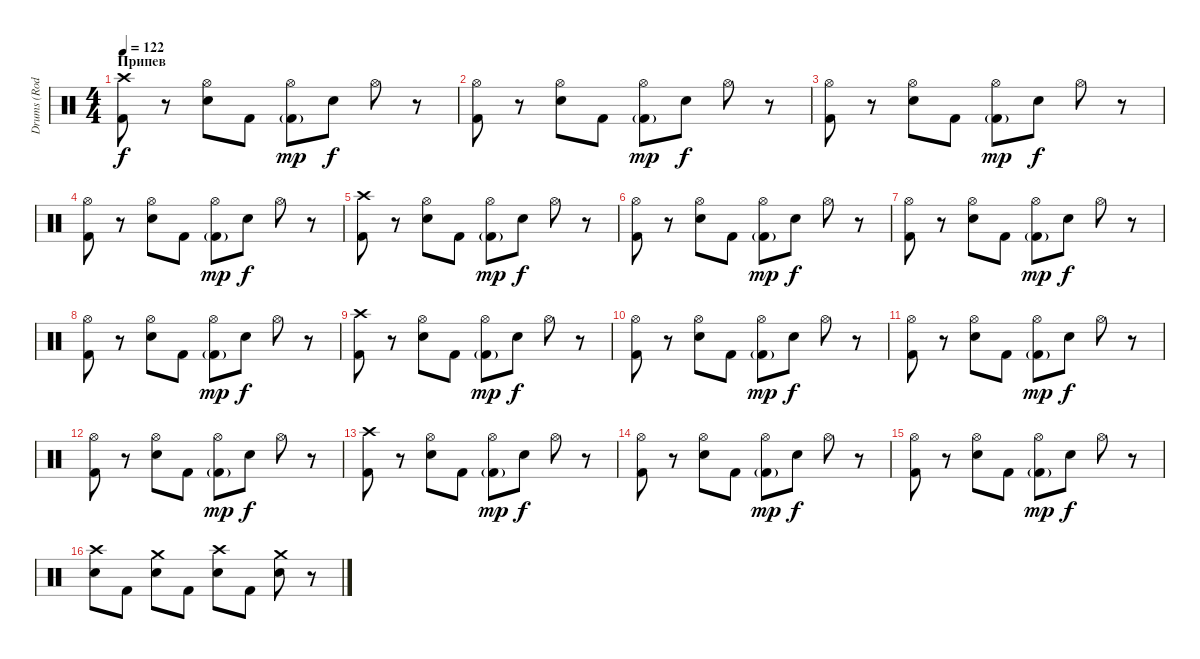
\track ("Drums (Rod Bourdon)" "Drums (Rod") {instrument percussion}
\staff {score}
\articulation defaults
\ts (4 4)
\section ("" "Припев")
\tempo 122
\clef neutral
\ks c
("Crash high (hit)" "Kick (hit) 2").8{dy f} r.8 ("Hi-Hat (open)" "Electric Snare (hit)").8 "Kick (hit) 2".8 ("Hi-Hat (open)" "Kick (hit) 2"{g}).8{dy mp} "Electric Snare (hit)".8{dy f} "Hi-Hat (open)".8 r.8 |
("Hi-Hat (open)" "Kick (hit) 2").8 r.8 ("Hi-Hat (open)" "Electric Snare (hit)").8 "Kick (hit) 2".8 ("Hi-Hat (open)" "Kick (hit) 2"{g}).8{dy mp} "Electric Snare (hit)".8{dy f} "Hi-Hat (open)".8 r.8 |
("Hi-Hat (open)" "Kick (hit) 2").8 r.8 ("Hi-Hat (open)" "Electric Snare (hit)").8 "Kick (hit) 2".8 ("Hi-Hat (open)" "Kick (hit) 2"{g}).8{dy mp} "Electric Snare (hit)".8{dy f} "Hi-Hat (open)".8 r.8 |
("Hi-Hat (open)" "Kick (hit) 2").8 r.8 ("Hi-Hat (open)" "Electric Snare (hit)").8 "Kick (hit) 2".8 ("Hi-Hat (open)" "Kick (hit) 2"{g}).8{dy mp} "Electric Snare (hit)".8{dy f} "Hi-Hat (open)".8 r.8 |
("Crash high (hit)" "Kick (hit) 2").8 r.8 ("Hi-Hat (open)" "Electric Snare (hit)").8 "Kick (hit) 2".8 ("Hi-Hat (open)" "Kick (hit) 2"{g}).8{dy mp} "Electric Snare (hit)".8{dy f} "Hi-Hat (open)".8 r.8 |
("Hi-Hat (open)" "Kick (hit) 2").8 r.8 ("Hi-Hat (open)" "Electric Snare (hit)").8 "Kick (hit) 2".8 ("Hi-Hat (open)" "Kick (hit) 2"{g}).8{dy mp} "Electric Snare (hit)".8{dy f} "Hi-Hat (open)".8 r.8 |
("Hi-Hat (open)" "Kick (hit) 2").8 r.8 ("Hi-Hat (open)" "Electric Snare (hit)").8 "Kick (hit) 2".8 ("Hi-Hat (open)" "Kick (hit) 2"{g}).8{dy mp} "Electric Snare (hit)".8{dy f} "Hi-Hat (open)".8 r.8 |
("Hi-Hat (open)" "Kick (hit) 2").8 r.8 ("Hi-Hat (open)" "Electric Snare (hit)").8 "Kick (hit) 2".8 ("Hi-Hat (open)" "Kick (hit) 2"{g}).8{dy mp} "Electric Snare (hit)".8{dy f} "Hi-Hat (open)".8 r.8 |
("Crash high (hit)" "Kick (hit) 2").8 r.8 ("Hi-Hat (open)" "Electric Snare (hit)").8 "Kick (hit) 2".8 ("Hi-Hat (open)" "Kick (hit) 2"{g}).8{dy mp} "Electric Snare (hit)".8{dy f} "Hi-Hat (open)".8 r.8 |
("Hi-Hat (open)" "Kick (hit) 2").8 r.8 ("Hi-Hat (open)" "Electric Snare (hit)").8 "Kick (hit) 2".8 ("Hi-Hat (open)" "Kick (hit) 2"{g}).8{dy mp} "Electric Snare (hit)".8{dy f} "Hi-Hat (open)".8 r.8 |
("Hi-Hat (open)" "Kick (hit) 2").8 r.8 ("Hi-Hat (open)" "Electric Snare (hit)").8 "Kick (hit) 2".8 ("Hi-Hat (open)" "Kick (hit) 2"{g}).8{dy mp} "Electric Snare (hit)".8{dy f} "Hi-Hat (open)".8 r.8 |
("Hi-Hat (open)" "Kick (hit) 2").8 r.8 ("Hi-Hat (open)" "Electric Snare (hit)").8 "Kick (hit) 2".8 ("Hi-Hat (open)" "Kick (hit) 2"{g}).8{dy mp} "Electric Snare (hit)".8{dy f} "Hi-Hat (open)".8 r.8 |
("Crash high (hit)" "Kick (hit) 2").8 r.8 ("Hi-Hat (open)" "Electric Snare (hit)").8 "Kick (hit) 2".8 ("Hi-Hat (open)" "Kick (hit) 2"{g}).8{dy mp} "Electric Snare (hit)".8{dy f} "Hi-Hat (open)".8 r.8 |
("Hi-Hat (open)" "Kick (hit) 2").8 r.8 ("Hi-Hat (open)" "Electric Snare (hit)").8 "Kick (hit) 2".8 ("Hi-Hat (open)" "Kick (hit) 2"{g}).8{dy mp} "Electric Snare (hit)".8{dy f} "Hi-Hat (open)".8 r.8 |
("Hi-Hat (open)" "Kick (hit) 2").8 r.8 ("Hi-Hat (open)" "Electric Snare (hit)").8 "Kick (hit) 2".8 ("Hi-Hat (open)" "Kick (hit) 2"{g}).8{dy mp} "Electric Snare (hit)".8{dy f} "Hi-Hat (open)".8 r.8 |
("Crash high (hit)" "Electric Snare (hit)").8 "Kick (hit) 2".8 ("Crash medium (hit)" "Electric Snare (hit)").8 "Kick (hit) 2".8 ("Crash high (hit)" "Electric Snare (hit)").8 "Kick (hit) 2".8 ("Crash medium (hit)" "Electric Snare (hit)").8 r.8
